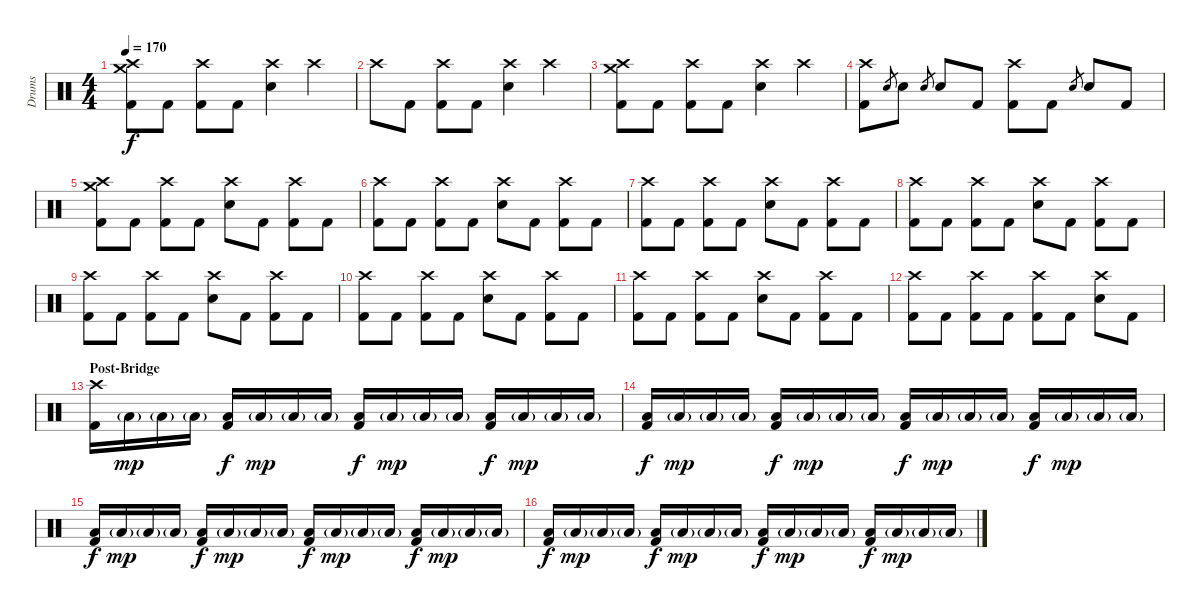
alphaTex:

\track ("Drums" "Drums") {instrument percussion}
\staff {score}
\articulation defaults
\ts (4 4)
\tempo 170
\clef neutral
\ks c
("Crash medium (hit)" "Crash high (hit)" "Kick (hit) 2").8{dy f} "Kick (hit) 2".8 ("Crash high (hit)" "Kick (hit) 2").8 "Kick (hit) 2".8 ("Crash high (hit)" "Snare (hit) 2").4 "Crash high (hit)".4 |
"Crash high (hit)".8 "Kick (hit) 2".8 ("Crash high (hit)" "Kick (hit) 2").8 "Kick (hit) 2".8 ("Crash high (hit)" "Snare (hit) 2").4 "Crash high (hit)".4 |
("Crash medium (hit)" "Crash high (hit)" "Kick (hit) 2").8 "Kick (hit) 2".8 ("Crash high (hit)" "Kick (hit) 2").8 "Kick (hit) 2".8 ("Crash high (hit)" "Snare (hit) 2").4 "Crash high (hit)".4 |
("Crash high (hit)" "Kick (hit) 2").8 "Snare (hit) 2".8{gr} "Snare (hit) 2".8 "Snare (hit) 2".8{gr} "Snare (hit) 2".8 "Kick (hit) 2".8 ("Crash high (hit)" "Kick (hit) 2").8 "Kick (hit) 2".8 "Snare (hit) 2".8{gr} "Snare (hit) 2".8 "Kick (hit) 2".8 |
("Crash medium (hit)" "Crash high (hit)" "Kick (hit) 2").8 "Kick (hit) 2".8 ("Crash high (hit)" "Kick (hit) 2").8 "Kick (hit) 2".8 ("Crash high (hit)" "Snare (hit) 2").8 "Kick (hit) 2".8 ("Crash high (hit)" "Kick (hit) 2").8 "Kick (hit) 2".8 |
("Crash high (hit)" "Kick (hit) 2").8 "Kick (hit) 2".8 ("Crash high (hit)" "Kick (hit) 2").8 "Kick (hit) 2".8 ("Crash high (hit)" "Snare (hit) 2").8 "Kick (hit) 2".8 ("Crash high (hit)" "Kick (hit) 2").8 "Kick (hit) 2".8 |
("Crash high (hit)" "Kick (hit) 2").8 "Kick (hit) 2".8 ("Crash high (hit)" "Kick (hit) 2").8 "Kick (hit) 2".8 ("Crash high (hit)" "Snare (hit) 2").8 "Kick (hit) 2".8 ("Crash high (hit)" "Kick (hit) 2").8 "Kick (hit) 2".8 |
("Crash high (hit)" "Kick (hit) 2").8 "Kick (hit) 2".8 ("Crash high (hit)" "Kick (hit) 2").8 "Kick (hit) 2".8 ("Crash high (hit)" "Snare (hit) 2").8 "Kick (hit) 2".8 ("Crash high (hit)" "Kick (hit) 2").8 "Kick (hit) 2".8 |
("Crash high (hit)" "Kick (hit) 2").8 "Kick (hit) 2".8 ("Crash high (hit)" "Kick (hit) 2").8 "Kick (hit) 2".8 ("Crash high (hit)" "Snare (hit) 2").8 "Kick (hit) 2".8 ("Crash high (hit)" "Kick (hit) 2").8 "Kick (hit) 2".8 |
("Crash high (hit)" "Kick (hit) 2").8 "Kick (hit) 2".8 ("Crash high (hit)" "Kick (hit) 2").8 "Kick (hit) 2".8 ("Crash high (hit)" "Snare (hit) 2").8 "Kick (hit) 2".8 ("Crash high (hit)" "Kick (hit) 2").8 "Kick (hit) 2".8 |
("Crash high (hit)" "Kick (hit) 2").8 "Kick (hit) 2".8 ("Crash high (hit)" "Kick (hit) 2").8 "Kick (hit) 2".8 ("Crash high (hit)" "Snare (hit) 2").8 "Kick (hit) 2".8 ("Crash high (hit)" "Kick (hit) 2").8 "Kick (hit) 2".8 |
("Crash high (hit)" "Kick (hit) 2").8 "Kick (hit) 2".8 ("Crash high (hit)" "Kick (hit) 2").8 "Kick (hit) 2".8 ("Crash high (hit)" "Kick (hit) 2").8 "Kick (hit) 2".8 ("Crash high (hit)" "Snare (hit) 2").8 "Kick (hit) 2".8 |
\section ("" "Post-Bridge")
("Crash high (hit)" "Kick (hit) 2").16 "Low Floor Tom (hit)"{g}.16{dy mp} "Low Floor Tom (hit)"{g}.16 "Low Floor Tom (hit)"{g}.16 ("Low Floor Tom (hit)" "Kick (hit) 2").16{dy f} "Low Floor Tom (hit)"{g}.16{dy mp} "Low Floor Tom (hit)"{g}.16 "Low Floor Tom (hit)"{g}.16 ("Low Floor Tom (hit)" "Kick (hit) 2").16{dy f} "Low Floor Tom (hit)"{g}.16{dy mp} "Low Floor Tom (hit)"{g}.16 "Low Floor Tom (hit)"{g}.16 ("Low Floor Tom (hit)" "Kick (hit) 2").16{dy f} "Low Floor Tom (hit)"{g}.16{dy mp} "Low Floor Tom (hit)"{g}.16 "Low Floor Tom (hit)"{g}.16 |
("Low Floor Tom (hit)" "Kick (hit) 2").16{dy f} "Low Floor Tom (hit)"{g}.16{dy mp} "Low Floor Tom (hit)"{g}.16 "Low Floor Tom (hit)"{g}.16 ("Low Floor Tom (hit)" "Kick (hit) 2").16{dy f} "Low Floor Tom (hit)"{g}.16{dy mp} "Low Floor Tom (hit)"{g}.16 "Low Floor Tom (hit)"{g}.16 ("Low Floor Tom (hit)" "Kick (hit) 2").16{dy f} "Low Floor Tom (hit)"{g}.16{dy mp} "Low Floor Tom (hit)"{g}.16 "Low Floor Tom (hit)"{g}.16 ("Low Floor Tom (hit)" "Kick (hit) 2").16{dy f} "Low Floor Tom (hit)"{g}.16{dy mp} "Low Floor Tom (hit)"{g}.16 "Low Floor Tom (hit)"{g}.16 |
("Low Floor Tom (hit)" "Kick (hit) 2").16{dy f} "Low Floor Tom (hit)"{g}.16{dy mp} "Low Floor Tom (hit)"{g}.16 "Low Floor Tom (hit)"{g}.16 ("Low Floor Tom (hit)" "Kick (hit) 2").16{dy f} "Low Floor Tom (hit)"{g}.16{dy mp} "Low Floor Tom (hit)"{g}.16 "Low Floor Tom (hit)"{g}.16 ("Low Floor Tom (hit)" "Kick (hit) 2").16{dy f} "Low Floor Tom (hit)"{g}.16{dy mp} "Low Floor Tom (hit)"{g}.16 "Low Floor Tom (hit)"{g}.16 ("Low Floor Tom (hit)" "Kick (hit) 2").16{dy f} "Low Floor Tom (hit)"{g}.16{dy mp} "Low Floor Tom (hit)"{g}.16 "Low Floor Tom (hit)"{g}.16 |
("Low Floor Tom (hit)" "Kick (hit) 2").16{dy f} "Low Floor Tom (hit)"{g}.16{dy mp} "Low Floor Tom (hit)"{g}.16 "Low Floor Tom (hit)"{g}.16 ("Low Floor Tom (hit)" "Kick (hit) 2").16{dy f} "Low Floor Tom (hit)"{g}.16{dy mp} "Low Floor Tom (hit)"{g}.16 "Low Floor Tom (hit)"{g}.16 ("Low Floor Tom (hit)" "Kick (hit) 2").16{dy f} "Low Floor Tom (hit)"{g}.16{dy mp} "Low Floor Tom (hit)"{g}.16 "Low Floor Tom (hit)"{g}.16 ("Low Floor Tom (hit)" "Kick (hit) 2").16{dy f} "Low Floor Tom (hit)"{g}.16{dy mp} "Low Floor Tom (hit)"{g}.16 "Low Floor Tom (hit)"{g}.16
